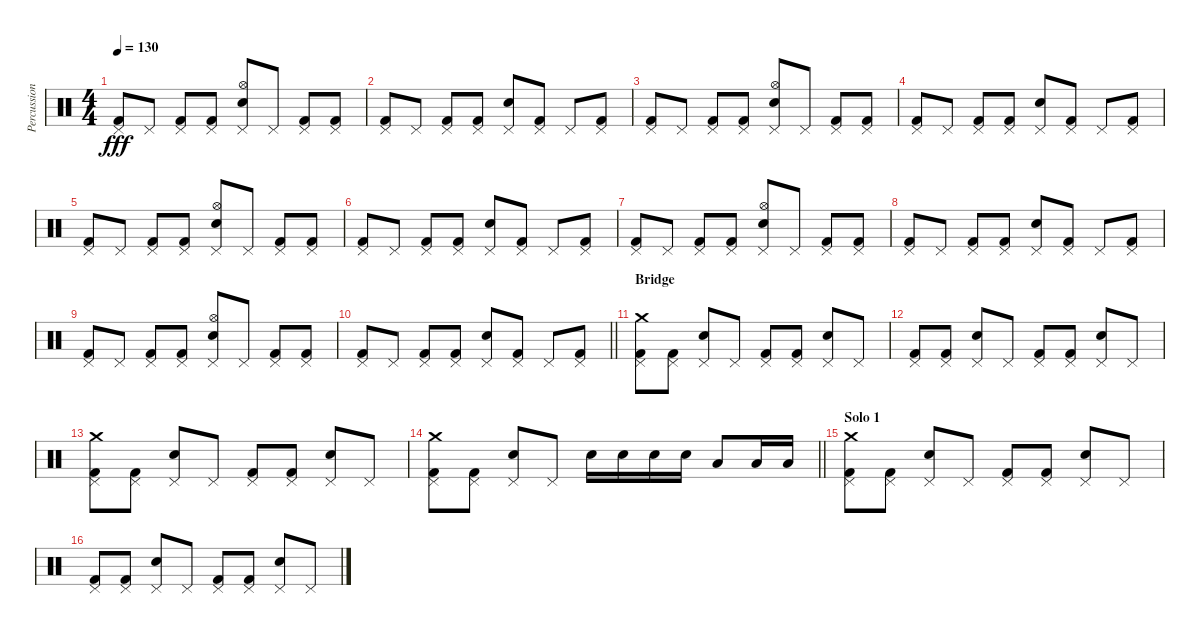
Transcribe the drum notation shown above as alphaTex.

\track ("Percussion" "Percussion") {instrument percussion}
\staff {score}
\articulation defaults
\ts (4 4)
\tempo 130
\clef neutral
\ks c
("Pedal Hi-Hat (hit)" "Kick (hit) 2").8{dy fff} "Pedal Hi-Hat (hit)".8 ("Pedal Hi-Hat (hit)" "Kick (hit) 2").8 ("Pedal Hi-Hat (hit)" "Kick (hit) 2").8 ("Pedal Hi-Hat (hit)" "Hi-Hat (open)" "Electric Snare (hit)").8 "Pedal Hi-Hat (hit)".8 ("Pedal Hi-Hat (hit)" "Kick (hit) 2").8 ("Pedal Hi-Hat (hit)" "Kick (hit) 2").8 |
("Pedal Hi-Hat (hit)" "Kick (hit) 2").8 "Pedal Hi-Hat (hit)".8 ("Pedal Hi-Hat (hit)" "Kick (hit) 2").8 ("Pedal Hi-Hat (hit)" "Kick (hit) 2").8 ("Pedal Hi-Hat (hit)" "Electric Snare (hit)").8 ("Pedal Hi-Hat (hit)" "Kick (hit) 2").8 "Pedal Hi-Hat (hit)".8 ("Pedal Hi-Hat (hit)" "Kick (hit) 2").8 |
("Pedal Hi-Hat (hit)" "Kick (hit) 2").8 "Pedal Hi-Hat (hit)".8 ("Pedal Hi-Hat (hit)" "Kick (hit) 2").8 ("Pedal Hi-Hat (hit)" "Kick (hit) 2").8 ("Pedal Hi-Hat (hit)" "Hi-Hat (open)" "Electric Snare (hit)").8 "Pedal Hi-Hat (hit)".8 ("Pedal Hi-Hat (hit)" "Kick (hit) 2").8 ("Pedal Hi-Hat (hit)" "Kick (hit) 2").8 |
("Pedal Hi-Hat (hit)" "Kick (hit) 2").8 "Pedal Hi-Hat (hit)".8 ("Pedal Hi-Hat (hit)" "Kick (hit) 2").8 ("Pedal Hi-Hat (hit)" "Kick (hit) 2").8 ("Pedal Hi-Hat (hit)" "Electric Snare (hit)").8 ("Pedal Hi-Hat (hit)" "Kick (hit) 2").8 "Pedal Hi-Hat (hit)".8 ("Pedal Hi-Hat (hit)" "Kick (hit) 2").8 |
("Pedal Hi-Hat (hit)" "Kick (hit) 2").8 "Pedal Hi-Hat (hit)".8 ("Pedal Hi-Hat (hit)" "Kick (hit) 2").8 ("Pedal Hi-Hat (hit)" "Kick (hit) 2").8 ("Pedal Hi-Hat (hit)" "Hi-Hat (open)" "Electric Snare (hit)").8 "Pedal Hi-Hat (hit)".8 ("Pedal Hi-Hat (hit)" "Kick (hit) 2").8 ("Pedal Hi-Hat (hit)" "Kick (hit) 2").8 |
("Pedal Hi-Hat (hit)" "Kick (hit) 2").8 "Pedal Hi-Hat (hit)".8 ("Pedal Hi-Hat (hit)" "Kick (hit) 2").8 ("Pedal Hi-Hat (hit)" "Kick (hit) 2").8 ("Pedal Hi-Hat (hit)" "Electric Snare (hit)").8 ("Pedal Hi-Hat (hit)" "Kick (hit) 2").8 "Pedal Hi-Hat (hit)".8 ("Pedal Hi-Hat (hit)" "Kick (hit) 2").8 |
("Pedal Hi-Hat (hit)" "Kick (hit) 2").8 "Pedal Hi-Hat (hit)".8 ("Pedal Hi-Hat (hit)" "Kick (hit) 2").8 ("Pedal Hi-Hat (hit)" "Kick (hit) 2").8 ("Pedal Hi-Hat (hit)" "Hi-Hat (open)" "Electric Snare (hit)").8 "Pedal Hi-Hat (hit)".8 ("Pedal Hi-Hat (hit)" "Kick (hit) 2").8 ("Pedal Hi-Hat (hit)" "Kick (hit) 2").8 |
("Pedal Hi-Hat (hit)" "Kick (hit) 2").8 "Pedal Hi-Hat (hit)".8 ("Pedal Hi-Hat (hit)" "Kick (hit) 2").8 ("Pedal Hi-Hat (hit)" "Kick (hit) 2").8 ("Pedal Hi-Hat (hit)" "Electric Snare (hit)").8 ("Pedal Hi-Hat (hit)" "Kick (hit) 2").8 "Pedal Hi-Hat (hit)".8 ("Pedal Hi-Hat (hit)" "Kick (hit) 2").8 |
("Pedal Hi-Hat (hit)" "Kick (hit) 2").8 "Pedal Hi-Hat (hit)".8 ("Pedal Hi-Hat (hit)" "Kick (hit) 2").8 ("Pedal Hi-Hat (hit)" "Kick (hit) 2").8 ("Pedal Hi-Hat (hit)" "Hi-Hat (open)" "Electric Snare (hit)").8 "Pedal Hi-Hat (hit)".8 ("Pedal Hi-Hat (hit)" "Kick (hit) 2").8 ("Pedal Hi-Hat (hit)" "Kick (hit) 2").8 |
\barLineRight lightlight
("Pedal Hi-Hat (hit)" "Kick (hit) 2").8 "Pedal Hi-Hat (hit)".8 ("Pedal Hi-Hat (hit)" "Kick (hit) 2").8 ("Pedal Hi-Hat (hit)" "Kick (hit) 2").8 ("Pedal Hi-Hat (hit)" "Electric Snare (hit)").8 ("Pedal Hi-Hat (hit)" "Kick (hit) 2").8 "Pedal Hi-Hat (hit)".8 ("Pedal Hi-Hat (hit)" "Kick (hit) 2").8 |
\section ("" "Bridge")
("Pedal Hi-Hat (hit)" "Crash medium (hit)" "Kick (hit) 2").8 ("Pedal Hi-Hat (hit)" "Kick (hit) 2").8 ("Pedal Hi-Hat (hit)" "Electric Snare (hit)").8 "Pedal Hi-Hat (hit)".8 ("Pedal Hi-Hat (hit)" "Kick (hit) 2").8 ("Pedal Hi-Hat (hit)" "Kick (hit) 2").8 ("Pedal Hi-Hat (hit)" "Electric Snare (hit)").8 "Pedal Hi-Hat (hit)".8 |
("Pedal Hi-Hat (hit)" "Kick (hit) 2").8 ("Pedal Hi-Hat (hit)" "Kick (hit) 2").8 ("Pedal Hi-Hat (hit)" "Electric Snare (hit)").8 "Pedal Hi-Hat (hit)".8 ("Pedal Hi-Hat (hit)" "Kick (hit) 2").8 ("Pedal Hi-Hat (hit)" "Kick (hit) 2").8 ("Pedal Hi-Hat (hit)" "Electric Snare (hit)").8 "Pedal Hi-Hat (hit)".8 |
("Pedal Hi-Hat (hit)" "Crash medium (hit)" "Kick (hit) 2").8 ("Pedal Hi-Hat (hit)" "Kick (hit) 2").8 ("Pedal Hi-Hat (hit)" "Electric Snare (hit)").8 "Pedal Hi-Hat (hit)".8 ("Pedal Hi-Hat (hit)" "Kick (hit) 2").8 ("Pedal Hi-Hat (hit)" "Kick (hit) 2").8 ("Pedal Hi-Hat (hit)" "Electric Snare (hit)").8 "Pedal Hi-Hat (hit)".8 |
\barLineRight lightlight
("Pedal Hi-Hat (hit)" "Crash medium (hit)" "Kick (hit) 2").8 ("Pedal Hi-Hat (hit)" "Kick (hit) 2").8 ("Pedal Hi-Hat (hit)" "Electric Snare (hit)").8 "Pedal Hi-Hat (hit)".8 "Electric Snare (hit)".16 "Electric Snare (hit)".16 "Electric Snare (hit)".16 "Electric Snare (hit)".16 "Low Tom (hit)".8 "Low Tom (hit)".16 "Low Tom (hit)".16 |
\section ("" "Solo 1")
("Pedal Hi-Hat (hit)" "Crash medium (hit)" "Kick (hit) 2").8 ("Pedal Hi-Hat (hit)" "Kick (hit) 2").8 ("Pedal Hi-Hat (hit)" "Electric Snare (hit)").8 "Pedal Hi-Hat (hit)".8 ("Pedal Hi-Hat (hit)" "Kick (hit) 2").8 ("Pedal Hi-Hat (hit)" "Kick (hit) 2").8 ("Pedal Hi-Hat (hit)" "Electric Snare (hit)").8 "Pedal Hi-Hat (hit)".8 |
("Pedal Hi-Hat (hit)" "Kick (hit) 2").8 ("Pedal Hi-Hat (hit)" "Kick (hit) 2").8 ("Pedal Hi-Hat (hit)" "Electric Snare (hit)").8 "Pedal Hi-Hat (hit)".8 ("Pedal Hi-Hat (hit)" "Kick (hit) 2").8 ("Pedal Hi-Hat (hit)" "Kick (hit) 2").8 ("Pedal Hi-Hat (hit)" "Electric Snare (hit)").8 "Pedal Hi-Hat (hit)".8
